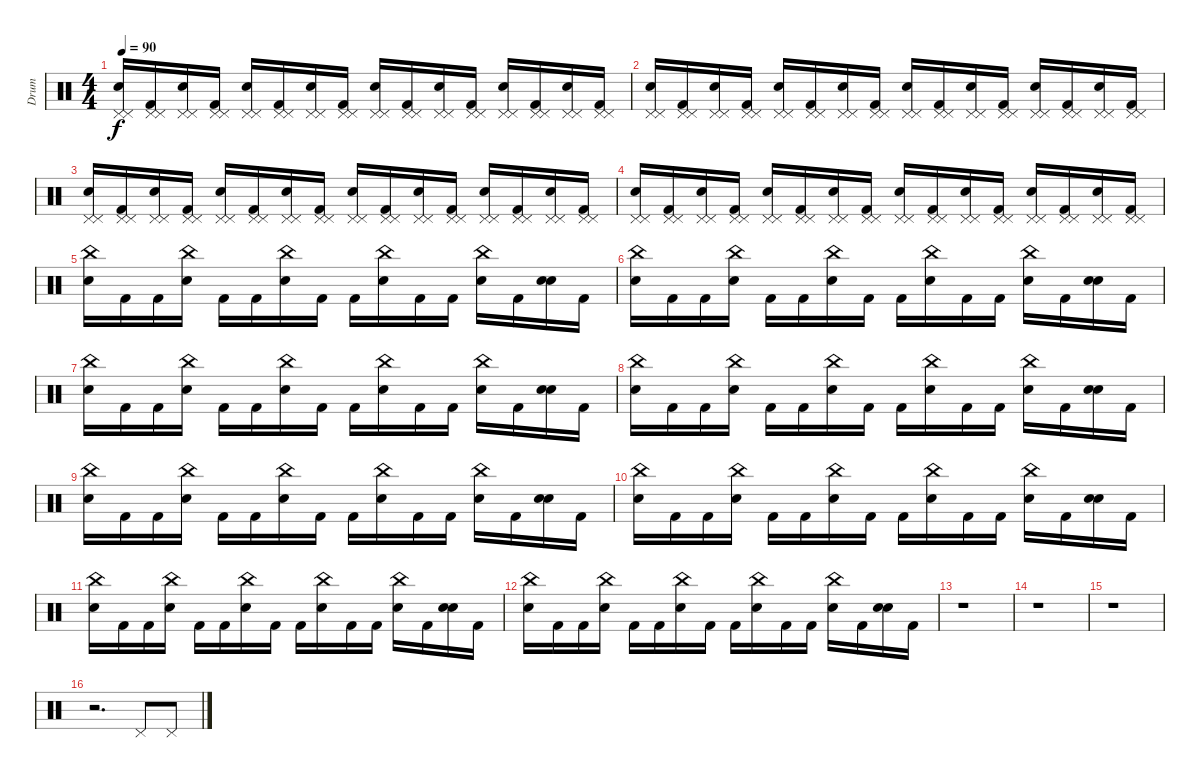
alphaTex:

\track ("Drum" "Drum") {instrument percussion}
\staff {score}
\articulation defaults
\ts (4 4)
\tempo 90
\clef neutral
\ks c
("Pedal Hi-Hat (hit)" "Electric Snare (hit)" "Pedal Hi-Hat (hit)").16{dy f} ("Pedal Hi-Hat (hit)" "Kick (hit) 2" "Pedal Hi-Hat (hit)").16 ("Pedal Hi-Hat (hit)" "Electric Snare (hit)" "Pedal Hi-Hat (hit)").16 ("Pedal Hi-Hat (hit)" "Kick (hit) 2" "Pedal Hi-Hat (hit)").16 ("Pedal Hi-Hat (hit)" "Electric Snare (hit)" "Pedal Hi-Hat (hit)").16 ("Pedal Hi-Hat (hit)" "Kick (hit) 2" "Pedal Hi-Hat (hit)").16 ("Pedal Hi-Hat (hit)" "Electric Snare (hit)" "Pedal Hi-Hat (hit)").16 ("Pedal Hi-Hat (hit)" "Kick (hit) 2" "Pedal Hi-Hat (hit)").16 ("Pedal Hi-Hat (hit)" "Electric Snare (hit)" "Pedal Hi-Hat (hit)").16 ("Pedal Hi-Hat (hit)" "Kick (hit) 2" "Pedal Hi-Hat (hit)").16 ("Pedal Hi-Hat (hit)" "Electric Snare (hit)" "Pedal Hi-Hat (hit)").16 ("Pedal Hi-Hat (hit)" "Kick (hit) 2" "Pedal Hi-Hat (hit)").16 ("Pedal Hi-Hat (hit)" "Electric Snare (hit)" "Pedal Hi-Hat (hit)").16 ("Pedal Hi-Hat (hit)" "Kick (hit) 2" "Pedal Hi-Hat (hit)").16 ("Pedal Hi-Hat (hit)" "Electric Snare (hit)" "Pedal Hi-Hat (hit)").16 ("Pedal Hi-Hat (hit)" "Kick (hit) 2" "Pedal Hi-Hat (hit)").16 |
("Pedal Hi-Hat (hit)" "Electric Snare (hit)" "Pedal Hi-Hat (hit)").16 ("Pedal Hi-Hat (hit)" "Kick (hit) 2" "Pedal Hi-Hat (hit)").16 ("Pedal Hi-Hat (hit)" "Electric Snare (hit)" "Pedal Hi-Hat (hit)").16 ("Pedal Hi-Hat (hit)" "Kick (hit) 2" "Pedal Hi-Hat (hit)").16 ("Pedal Hi-Hat (hit)" "Electric Snare (hit)" "Pedal Hi-Hat (hit)").16 ("Pedal Hi-Hat (hit)" "Kick (hit) 2" "Pedal Hi-Hat (hit)").16 ("Pedal Hi-Hat (hit)" "Electric Snare (hit)" "Pedal Hi-Hat (hit)").16 ("Pedal Hi-Hat (hit)" "Kick (hit) 2" "Pedal Hi-Hat (hit)").16 ("Pedal Hi-Hat (hit)" "Electric Snare (hit)" "Pedal Hi-Hat (hit)").16 ("Pedal Hi-Hat (hit)" "Kick (hit) 2" "Pedal Hi-Hat (hit)").16 ("Pedal Hi-Hat (hit)" "Electric Snare (hit)" "Pedal Hi-Hat (hit)").16 ("Pedal Hi-Hat (hit)" "Kick (hit) 2" "Pedal Hi-Hat (hit)").16 ("Pedal Hi-Hat (hit)" "Electric Snare (hit)" "Pedal Hi-Hat (hit)").16 ("Pedal Hi-Hat (hit)" "Kick (hit) 2" "Pedal Hi-Hat (hit)").16 ("Pedal Hi-Hat (hit)" "Electric Snare (hit)" "Pedal Hi-Hat (hit)").16 ("Pedal Hi-Hat (hit)" "Kick (hit) 2" "Pedal Hi-Hat (hit)").16 |
("Pedal Hi-Hat (hit)" "Electric Snare (hit)" "Pedal Hi-Hat (hit)").16 ("Pedal Hi-Hat (hit)" "Kick (hit) 2" "Pedal Hi-Hat (hit)").16 ("Pedal Hi-Hat (hit)" "Electric Snare (hit)" "Pedal Hi-Hat (hit)").16 ("Pedal Hi-Hat (hit)" "Kick (hit) 2" "Pedal Hi-Hat (hit)").16 ("Pedal Hi-Hat (hit)" "Electric Snare (hit)" "Pedal Hi-Hat (hit)").16 ("Pedal Hi-Hat (hit)" "Kick (hit) 2" "Pedal Hi-Hat (hit)").16 ("Pedal Hi-Hat (hit)" "Electric Snare (hit)" "Pedal Hi-Hat (hit)").16 ("Pedal Hi-Hat (hit)" "Kick (hit) 2" "Pedal Hi-Hat (hit)").16 ("Pedal Hi-Hat (hit)" "Electric Snare (hit)" "Pedal Hi-Hat (hit)").16 ("Pedal Hi-Hat (hit)" "Kick (hit) 2" "Pedal Hi-Hat (hit)").16 ("Pedal Hi-Hat (hit)" "Electric Snare (hit)" "Pedal Hi-Hat (hit)").16 ("Pedal Hi-Hat (hit)" "Kick (hit) 2" "Pedal Hi-Hat (hit)").16 ("Pedal Hi-Hat (hit)" "Electric Snare (hit)" "Pedal Hi-Hat (hit)").16 ("Pedal Hi-Hat (hit)" "Kick (hit) 2" "Pedal Hi-Hat (hit)").16 ("Pedal Hi-Hat (hit)" "Electric Snare (hit)" "Pedal Hi-Hat (hit)").16 ("Pedal Hi-Hat (hit)" "Kick (hit) 2" "Pedal Hi-Hat (hit)").16 |
("Pedal Hi-Hat (hit)" "Electric Snare (hit)" "Pedal Hi-Hat (hit)").16 ("Pedal Hi-Hat (hit)" "Kick (hit) 2" "Pedal Hi-Hat (hit)").16 ("Pedal Hi-Hat (hit)" "Electric Snare (hit)" "Pedal Hi-Hat (hit)").16 ("Pedal Hi-Hat (hit)" "Kick (hit) 2" "Pedal Hi-Hat (hit)").16 ("Pedal Hi-Hat (hit)" "Electric Snare (hit)" "Pedal Hi-Hat (hit)").16 ("Pedal Hi-Hat (hit)" "Kick (hit) 2" "Pedal Hi-Hat (hit)").16 ("Pedal Hi-Hat (hit)" "Electric Snare (hit)" "Pedal Hi-Hat (hit)").16 ("Pedal Hi-Hat (hit)" "Kick (hit) 2" "Pedal Hi-Hat (hit)").16 ("Pedal Hi-Hat (hit)" "Electric Snare (hit)" "Pedal Hi-Hat (hit)").16 ("Pedal Hi-Hat (hit)" "Kick (hit) 2" "Pedal Hi-Hat (hit)").16 ("Pedal Hi-Hat (hit)" "Electric Snare (hit)" "Pedal Hi-Hat (hit)").16 ("Pedal Hi-Hat (hit)" "Kick (hit) 2" "Pedal Hi-Hat (hit)").16 ("Pedal Hi-Hat (hit)" "Electric Snare (hit)" "Pedal Hi-Hat (hit)").16 ("Pedal Hi-Hat (hit)" "Kick (hit) 2" "Pedal Hi-Hat (hit)").16 ("Pedal Hi-Hat (hit)" "Electric Snare (hit)" "Pedal Hi-Hat (hit)").16 ("Pedal Hi-Hat (hit)" "Kick (hit) 2" "Pedal Hi-Hat (hit)").16 |
("China (hit)" "Electric Snare (hit)").16 "Kick (hit) 2".16 "Kick (hit) 2".16 ("China (hit)" "Electric Snare (hit)").16 "Kick (hit) 2".16 "Kick (hit) 2".16 ("China (hit)" "Electric Snare (hit)").16 "Kick (hit) 2".16 "Kick (hit) 2".16 ("China (hit)" "Electric Snare (hit)").16 "Kick (hit) 2".16 "Kick (hit) 2".16 ("China (hit)" "Electric Snare (hit)").16 "Kick (hit) 2".16 ("Electric Snare (hit)" "Electric Snare (hit)").16 "Kick (hit) 2".16 |
("China (hit)" "Electric Snare (hit)").16 "Kick (hit) 2".16 "Kick (hit) 2".16 ("China (hit)" "Electric Snare (hit)").16 "Kick (hit) 2".16 "Kick (hit) 2".16 ("China (hit)" "Electric Snare (hit)").16 "Kick (hit) 2".16 "Kick (hit) 2".16 ("China (hit)" "Electric Snare (hit)").16 "Kick (hit) 2".16 "Kick (hit) 2".16 ("China (hit)" "Electric Snare (hit)").16 "Kick (hit) 2".16 ("Electric Snare (hit)" "Electric Snare (hit)").16 "Kick (hit) 2".16 |
("China (hit)" "Electric Snare (hit)").16 "Kick (hit) 2".16 "Kick (hit) 2".16 ("China (hit)" "Electric Snare (hit)").16 "Kick (hit) 2".16 "Kick (hit) 2".16 ("China (hit)" "Electric Snare (hit)").16 "Kick (hit) 2".16 "Kick (hit) 2".16 ("China (hit)" "Electric Snare (hit)").16 "Kick (hit) 2".16 "Kick (hit) 2".16 ("China (hit)" "Electric Snare (hit)").16 "Kick (hit) 2".16 ("Electric Snare (hit)" "Electric Snare (hit)").16 "Kick (hit) 2".16 |
("China (hit)" "Electric Snare (hit)").16 "Kick (hit) 2".16 "Kick (hit) 2".16 ("China (hit)" "Electric Snare (hit)").16 "Kick (hit) 2".16 "Kick (hit) 2".16 ("China (hit)" "Electric Snare (hit)").16 "Kick (hit) 2".16 "Kick (hit) 2".16 ("China (hit)" "Electric Snare (hit)").16 "Kick (hit) 2".16 "Kick (hit) 2".16 ("China (hit)" "Electric Snare (hit)").16 "Kick (hit) 2".16 ("Electric Snare (hit)" "Electric Snare (hit)").16 "Kick (hit) 2".16 |
("China (hit)" "Electric Snare (hit)").16 "Kick (hit) 2".16 "Kick (hit) 2".16 ("China (hit)" "Electric Snare (hit)").16 "Kick (hit) 2".16 "Kick (hit) 2".16 ("China (hit)" "Electric Snare (hit)").16 "Kick (hit) 2".16 "Kick (hit) 2".16 ("China (hit)" "Electric Snare (hit)").16 "Kick (hit) 2".16 "Kick (hit) 2".16 ("China (hit)" "Electric Snare (hit)").16 "Kick (hit) 2".16 ("Electric Snare (hit)" "Electric Snare (hit)").16 "Kick (hit) 2".16 |
("China (hit)" "Electric Snare (hit)").16 "Kick (hit) 2".16 "Kick (hit) 2".16 ("China (hit)" "Electric Snare (hit)").16 "Kick (hit) 2".16 "Kick (hit) 2".16 ("China (hit)" "Electric Snare (hit)").16 "Kick (hit) 2".16 "Kick (hit) 2".16 ("China (hit)" "Electric Snare (hit)").16 "Kick (hit) 2".16 "Kick (hit) 2".16 ("China (hit)" "Electric Snare (hit)").16 "Kick (hit) 2".16 ("Electric Snare (hit)" "Electric Snare (hit)").16 "Kick (hit) 2".16 |
("China (hit)" "Electric Snare (hit)").16 "Kick (hit) 2".16 "Kick (hit) 2".16 ("China (hit)" "Electric Snare (hit)").16 "Kick (hit) 2".16 "Kick (hit) 2".16 ("China (hit)" "Electric Snare (hit)").16 "Kick (hit) 2".16 "Kick (hit) 2".16 ("China (hit)" "Electric Snare (hit)").16 "Kick (hit) 2".16 "Kick (hit) 2".16 ("China (hit)" "Electric Snare (hit)").16 "Kick (hit) 2".16 ("Electric Snare (hit)" "Electric Snare (hit)").16 "Kick (hit) 2".16 |
("China (hit)" "Electric Snare (hit)").16 "Kick (hit) 2".16 "Kick (hit) 2".16 ("China (hit)" "Electric Snare (hit)").16 "Kick (hit) 2".16 "Kick (hit) 2".16 ("China (hit)" "Electric Snare (hit)").16 "Kick (hit) 2".16 "Kick (hit) 2".16 ("China (hit)" "Electric Snare (hit)").16 "Kick (hit) 2".16 "Kick (hit) 2".16 ("China (hit)" "Electric Snare (hit)").16 "Kick (hit) 2".16 ("Electric Snare (hit)" "Electric Snare (hit)").16 "Kick (hit) 2".16 |
r.1 |
r.1 |
r.1 |
r.2{d} "Pedal Hi-Hat (hit)".8 "Pedal Hi-Hat (hit)".8
